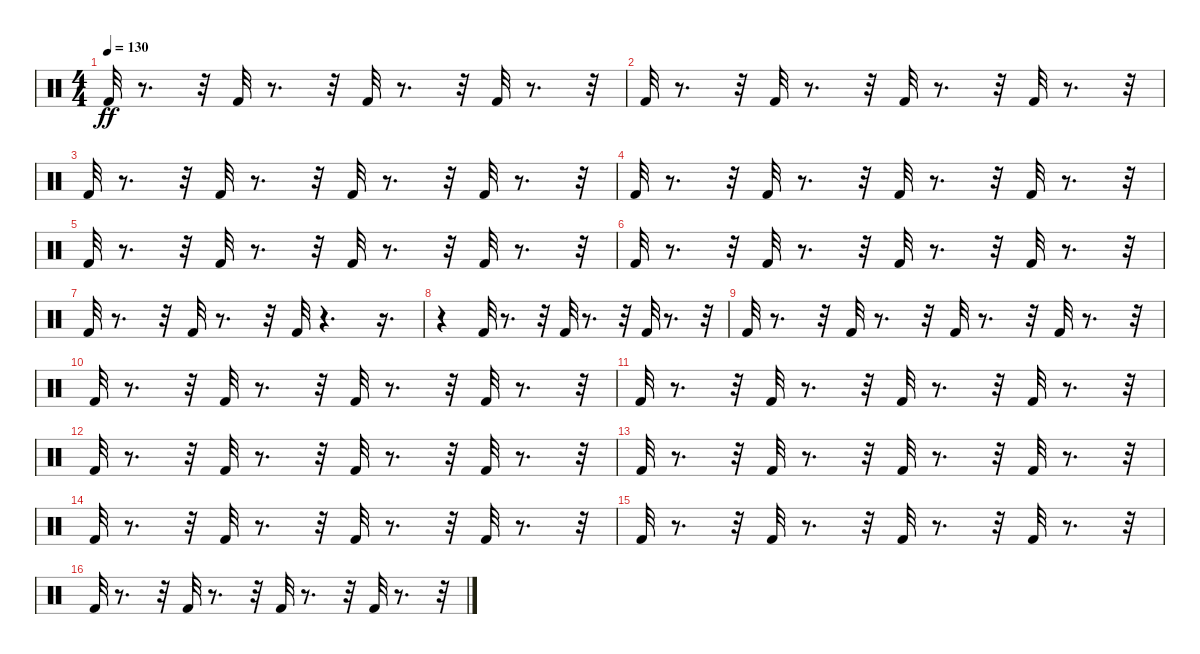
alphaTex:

\track "" {instrument percussion}
\staff {score}
\articulation defaults
\ts (4 4)
\tempo 130
\clef neutral
\ks c "Kick (hit) 2".32{dy ff}
r.8{d} r.32 "Kick (hit) 2".32 r.8{d} r.32 "Kick (hit) 2".32 r.8{d} r.32 "Kick (hit) 2".32 r.8{d} r.32 |
"Kick (hit) 2".32 r.8{d} r.32 "Kick (hit) 2".32 r.8{d} r.32 "Kick (hit) 2".32 r.8{d} r.32 "Kick (hit) 2".32 r.8{d} r.32 |
"Kick (hit) 2".32 r.8{d} r.32 "Kick (hit) 2".32 r.8{d} r.32 "Kick (hit) 2".32 r.8{d} r.32 "Kick (hit) 2".32 r.8{d} r.32 |
"Kick (hit) 2".32 r.8{d} r.32 "Kick (hit) 2".32 r.8{d} r.32 "Kick (hit) 2".32 r.8{d} r.32 "Kick (hit) 2".32 r.8{d} r.32 |
"Kick (hit) 2".32 r.8{d} r.32 "Kick (hit) 2".32 r.8{d} r.32 "Kick (hit) 2".32 r.8{d} r.32 "Kick (hit) 2".32 r.8{d} r.32 |
"Kick (hit) 2".32 r.8{d} r.32 "Kick (hit) 2".32 r.8{d} r.32 "Kick (hit) 2".32 r.8{d} r.32 "Kick (hit) 2".32 r.8{d} r.32 |
"Kick (hit) 2".32 r.8{d} r.32 "Kick (hit) 2".32 r.8{d} r.32 "Kick (hit) 2".32 r.4{d} r.16{d} |
r.4 "Kick (hit) 2".32 r.8{d} r.32 "Kick (hit) 2".32 r.8{d} r.32 "Kick (hit) 2".32 r.8{d} r.32 |
"Kick (hit) 2".32 r.8{d} r.32 "Kick (hit) 2".32 r.8{d} r.32 "Kick (hit) 2".32 r.8{d} r.32 "Kick (hit) 2".32 r.8{d} r.32 |
"Kick (hit) 2".32 r.8{d} r.32 "Kick (hit) 2".32 r.8{d} r.32 "Kick (hit) 2".32 r.8{d} r.32 "Kick (hit) 2".32 r.8{d} r.32 |
"Kick (hit) 2".32 r.8{d} r.32 "Kick (hit) 2".32 r.8{d} r.32 "Kick (hit) 2".32 r.8{d} r.32 "Kick (hit) 2".32 r.8{d} r.32 |
"Kick (hit) 2".32 r.8{d} r.32 "Kick (hit) 2".32 r.8{d} r.32 "Kick (hit) 2".32 r.8{d} r.32 "Kick (hit) 2".32 r.8{d} r.32 |
"Kick (hit) 2".32 r.8{d} r.32 "Kick (hit) 2".32 r.8{d} r.32 "Kick (hit) 2".32 r.8{d} r.32 "Kick (hit) 2".32 r.8{d} r.32 |
"Kick (hit) 2".32 r.8{d} r.32 "Kick (hit) 2".32 r.8{d} r.32 "Kick (hit) 2".32 r.8{d} r.32 "Kick (hit) 2".32 r.8{d} r.32 |
"Kick (hit) 2".32 r.8{d} r.32 "Kick (hit) 2".32 r.8{d} r.32 "Kick (hit) 2".32 r.8{d} r.32 "Kick (hit) 2".32 r.8{d} r.32 |
"Kick (hit) 2".32 r.8{d} r.32 "Kick (hit) 2".32 r.8{d} r.32 "Kick (hit) 2".32 r.8{d} r.32 "Kick (hit) 2".32 r.8{d} r.32
